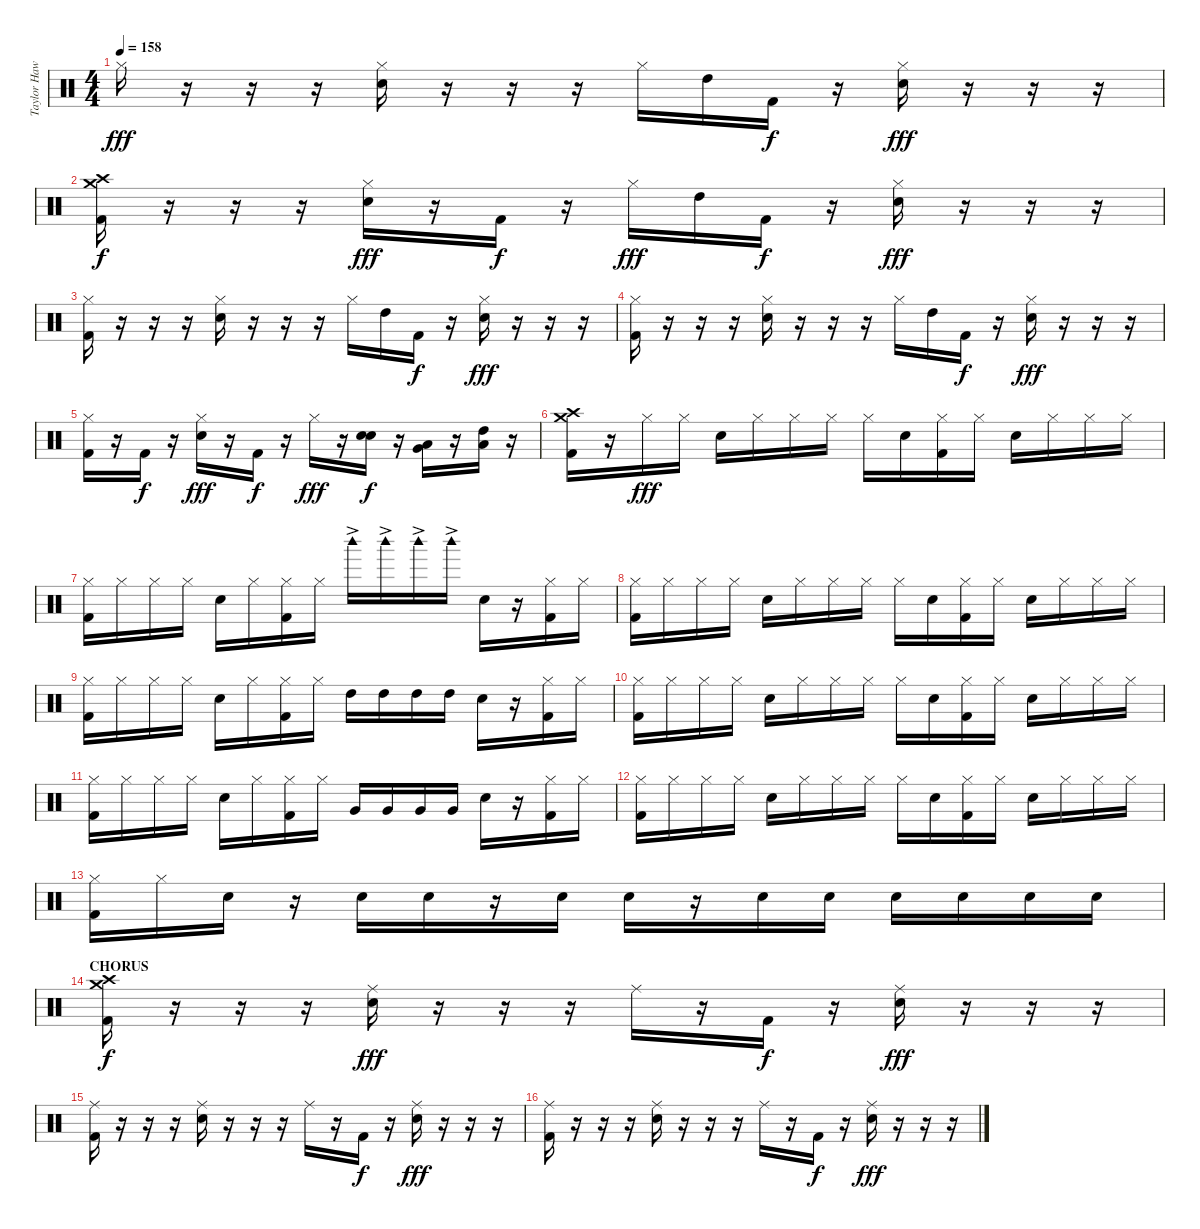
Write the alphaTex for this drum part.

\track ("Taylor Hawkins (Drums)" "Taylor Haw") {instrument percussion}
\staff {score}
\articulation defaults
\ts (4 4)
\tempo 158
\clef neutral
\ks c "Hi-Hat (closed)".16{dy fff}
r.16 r.16 r.16 ("Hi-Hat (closed)" "Electric Snare (hit)").16 r.16 r.16 r.16 "Hi-Hat (closed)".16 "High Tom (hit)".16 "Kick (hit) 2".16{dy f} r.16 ("Hi-Hat (closed)" "Electric Snare (hit)").16{dy fff} r.16 r.16 r.16 |
("Crash high (hit)" "Crash medium (hit)" "Kick (hit) 2").16{dy f} r.16 r.16 r.16 ("Hi-Hat (closed)" "Electric Snare (hit)").16{dy fff} r.16 "Kick (hit) 2".16{dy f} r.16 "Hi-Hat (closed)".16{dy fff} "High Tom (hit)".16 "Kick (hit) 2".16{dy f} r.16 ("Hi-Hat (closed)" "Electric Snare (hit)").16{dy fff} r.16 r.16 r.16 |
("Hi-Hat (closed)" "Kick (hit) 2").16 r.16 r.16 r.16 ("Hi-Hat (closed)" "Electric Snare (hit)").16 r.16 r.16 r.16 "Hi-Hat (closed)".16 "High Tom (hit)".16 "Kick (hit) 2".16{dy f} r.16 ("Hi-Hat (closed)" "Electric Snare (hit)").16{dy fff} r.16 r.16 r.16 |
("Hi-Hat (closed)" "Kick (hit) 2").16 r.16 r.16 r.16 ("Hi-Hat (closed)" "Electric Snare (hit)").16 r.16 r.16 r.16 "Hi-Hat (closed)".16 "High Tom (hit)".16 "Kick (hit) 2".16{dy f} r.16 ("Hi-Hat (closed)" "Electric Snare (hit)").16{dy fff} r.16 r.16 r.16 |
("Hi-Hat (closed)" "Kick (hit) 2").16 r.16 "Kick (hit) 2".16{dy f} r.16 ("Hi-Hat (closed)" "Electric Snare (hit)").16{dy fff} r.16 "Kick (hit) 2".16{dy f} r.16 "Hi-Hat (closed)".16{dy fff} r.16 ("Electric Snare (hit)" "Electric Snare (hit)").16{bu 120 dy f} r.16 ("Low Tom (hit)" "Very Low Tom (hit)").16{bu 120} r.16 ("High Tom (hit)" "Low Tom (hit)").16{bu 120} r.16 |
("Crash high (hit)" "Crash medium (hit)" "Kick (hit) 2").16 r.16 "Hi-Hat (closed)".16{dy fff} "Hi-Hat (closed)".16 "Electric Snare (hit)".16 "Hi-Hat (closed)".16 "Hi-Hat (closed)".16 "Hi-Hat (closed)".16 "Hi-Hat (closed)".16 "Electric Snare (hit)".16 ("Hi-Hat (closed)" "Kick (hit) 2").16 "Hi-Hat (closed)".16 "Electric Snare (hit)".16 "Hi-Hat (closed)".16 "Hi-Hat (closed)".16 "Hi-Hat (closed)".16 |
("Hi-Hat (closed)" "Kick (hit) 2").16 "Hi-Hat (closed)".16 "Hi-Hat (closed)".16 "Hi-Hat (closed)".16 "Electric Snare (hit)".16 "Hi-Hat (closed)".16 ("Hi-Hat (closed)" "Kick (hit) 2").16 "Hi-Hat (closed)".16 "Woodblock high (hit)"{ac}.16 "Woodblock high (hit)"{ac}.16 "Woodblock high (hit)"{ac}.16 "Woodblock high (hit)"{ac}.16 "Electric Snare (hit)".16 r.16 ("Hi-Hat (closed)" "Kick (hit) 2").16 "Hi-Hat (closed)".16 |
("Hi-Hat (closed)" "Kick (hit) 2").16 "Hi-Hat (closed)".16 "Hi-Hat (closed)".16 "Hi-Hat (closed)".16 "Electric Snare (hit)".16 "Hi-Hat (closed)".16 "Hi-Hat (closed)".16 "Hi-Hat (closed)".16 "Hi-Hat (closed)".16 "Electric Snare (hit)".16 ("Hi-Hat (closed)" "Kick (hit) 2").16 "Hi-Hat (closed)".16 "Electric Snare (hit)".16 "Hi-Hat (closed)".16 "Hi-Hat (closed)".16 "Hi-Hat (closed)".16 |
("Hi-Hat (closed)" "Kick (hit) 2").16 "Hi-Hat (closed)".16 "Hi-Hat (closed)".16 "Hi-Hat (closed)".16 "Electric Snare (hit)".16 "Hi-Hat (closed)".16 ("Hi-Hat (closed)" "Kick (hit) 2").16 "Hi-Hat (closed)".16 "High Tom (hit)".16 "High Tom (hit)".16 "High Tom (hit)".16 "High Tom (hit)".16 "Electric Snare (hit)".16 r.16 ("Hi-Hat (closed)" "Kick (hit) 2").16 "Hi-Hat (closed)".16 |
("Hi-Hat (closed)" "Kick (hit) 2").16 "Hi-Hat (closed)".16 "Hi-Hat (closed)".16 "Hi-Hat (closed)".16 "Electric Snare (hit)".16 "Hi-Hat (closed)".16 "Hi-Hat (closed)".16 "Hi-Hat (closed)".16 "Hi-Hat (closed)".16 "Electric Snare (hit)".16 ("Hi-Hat (closed)" "Kick (hit) 2").16 "Hi-Hat (closed)".16 "Electric Snare (hit)".16 "Hi-Hat (closed)".16 "Hi-Hat (closed)".16 "Hi-Hat (closed)".16 |
("Hi-Hat (closed)" "Kick (hit) 2").16 "Hi-Hat (closed)".16 "Hi-Hat (closed)".16 "Hi-Hat (closed)".16 "Electric Snare (hit)".16 "Hi-Hat (closed)".16 ("Hi-Hat (closed)" "Kick (hit) 2").16 "Hi-Hat (closed)".16 "Very Low Tom (hit)".16 "Very Low Tom (hit)".16 "Very Low Tom (hit)".16 "Very Low Tom (hit)".16 "Electric Snare (hit)".16 r.16 ("Hi-Hat (closed)" "Kick (hit) 2").16 "Hi-Hat (closed)".16 |
("Hi-Hat (closed)" "Kick (hit) 2").16 "Hi-Hat (closed)".16 "Hi-Hat (closed)".16 "Hi-Hat (closed)".16 "Electric Snare (hit)".16 "Hi-Hat (closed)".16 "Hi-Hat (closed)".16 "Hi-Hat (closed)".16 "Hi-Hat (closed)".16 "Electric Snare (hit)".16 ("Hi-Hat (closed)" "Kick (hit) 2").16 "Hi-Hat (closed)".16 "Electric Snare (hit)".16 "Hi-Hat (closed)".16 "Hi-Hat (closed)".16 "Hi-Hat (closed)".16 |
("Hi-Hat (closed)" "Kick (hit) 2").16 "Hi-Hat (closed)".16 "Electric Snare (hit)".16 r.16 "Electric Snare (hit)".16 "Electric Snare (hit)".16 r.16 "Electric Snare (hit)".16 "Electric Snare (hit)".16 r.16 "Electric Snare (hit)".16 "Electric Snare (hit)".16 "Electric Snare (hit)".16 "Electric Snare (hit)".16 "Electric Snare (hit)".16 "Electric Snare (hit)".16 |
\section ("" "CHORUS")
("Crash high (hit)" "Crash medium (hit)" "Kick (hit) 2").16{dy f} r.16 r.16 r.16 ("Ride (middle)" "Electric Snare (hit)").16{dy fff} r.16 r.16 r.16 "Ride (middle)".16 r.16 "Kick (hit) 2".16{dy f} r.16 ("Ride (middle)" "Electric Snare (hit)").16{dy fff} r.16 r.16 r.16 |
("Ride (middle)" "Kick (hit) 2").16 r.16 r.16 r.16 ("Ride (middle)" "Electric Snare (hit)").16 r.16 r.16 r.16 "Ride (middle)".16 r.16 "Kick (hit) 2".16{dy f} r.16 ("Ride (middle)" "Electric Snare (hit)").16{dy fff} r.16 r.16 r.16 |
("Ride (middle)" "Kick (hit) 2").16 r.16 r.16 r.16 ("Ride (middle)" "Electric Snare (hit)").16 r.16 r.16 r.16 "Ride (middle)".16 r.16 "Kick (hit) 2".16{dy f} r.16 ("Ride (middle)" "Electric Snare (hit)").16{dy fff} r.16 r.16 r.16
